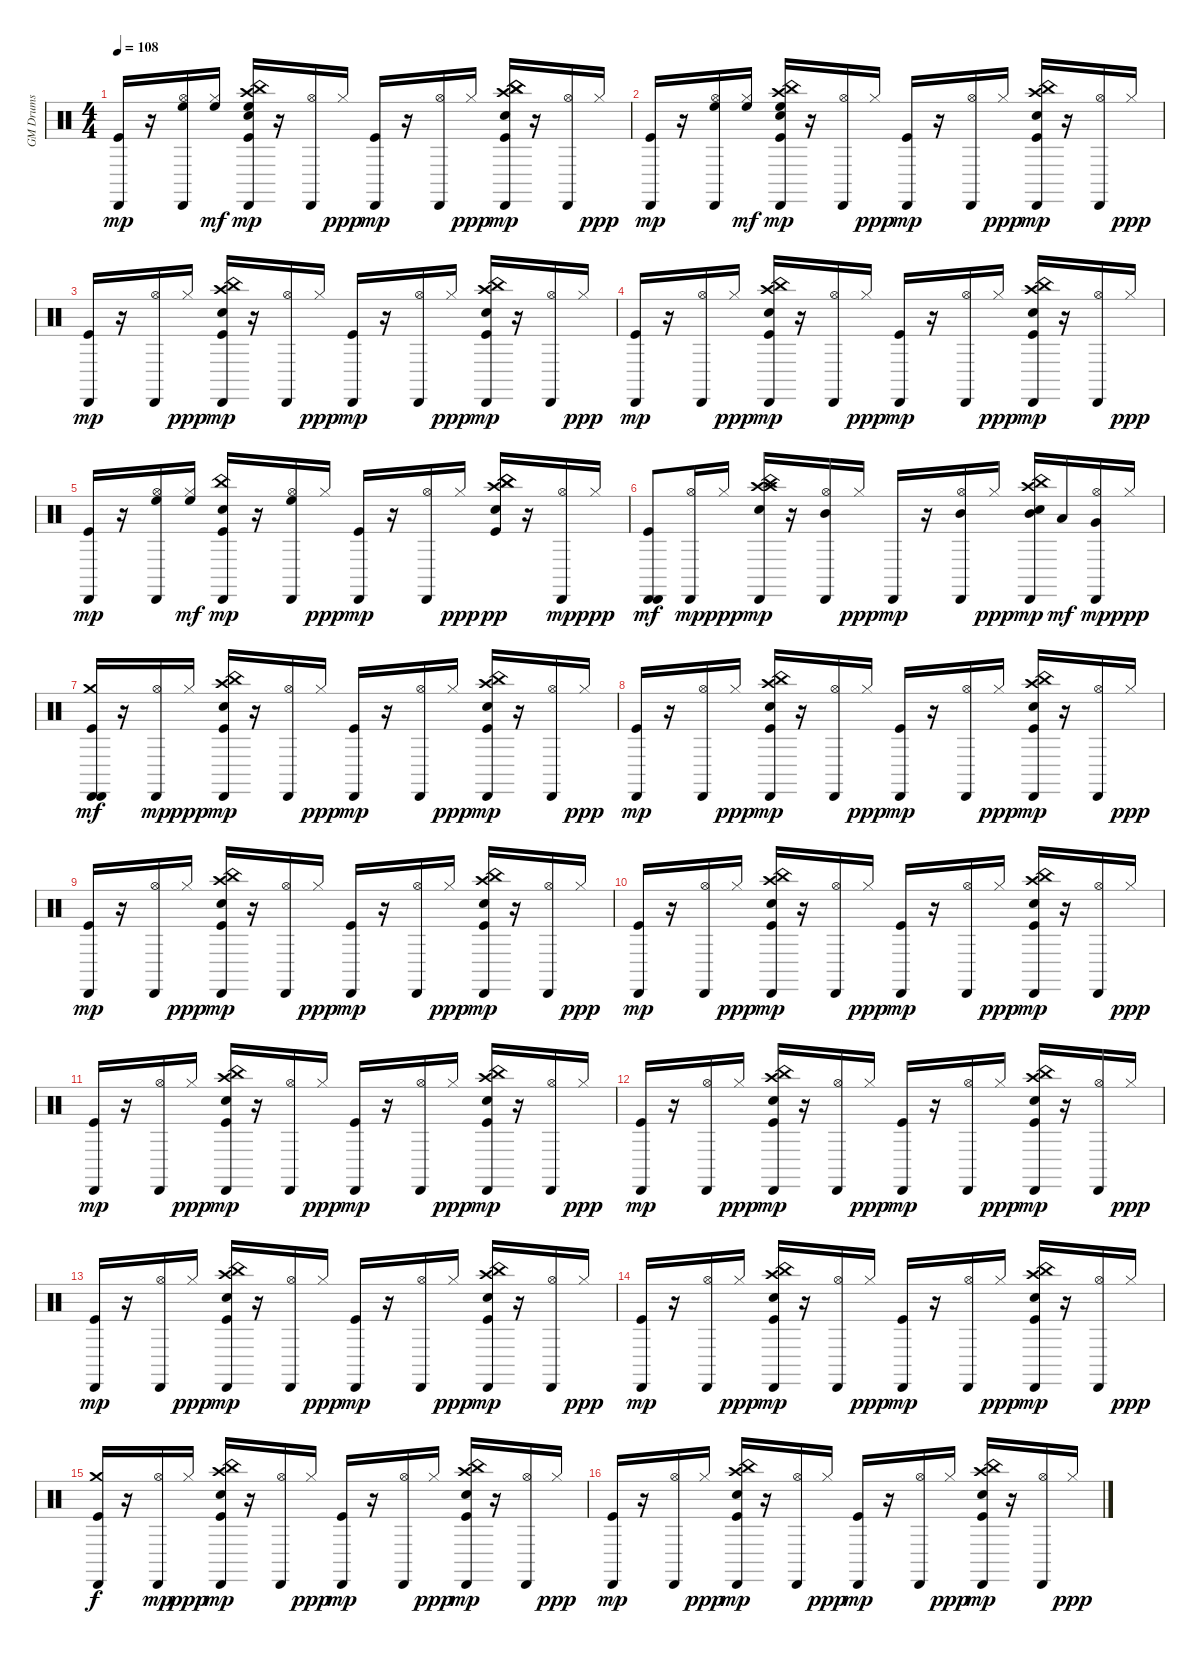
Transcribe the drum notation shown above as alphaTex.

\track ("GM Drums" "GM Drums") {instrument percussion}
\staff {score}
\articulation defaults
\ts (4 4)
\tempo 108
\clef neutral
\ks c
("Kick (hit)" "Cabasa (hit)").16{dy mp} r.16 ("Hi-Hat (open)" "High Floor Tom (hit)" "Cabasa (hit)").16 ("Hi-Hat (closed)" "High Floor Tom (hit)").16{dy mf} ("Kick (hit)" "Electric Snare (hit)" "Crash high (hit)" "High Floor Tom (hit)" "China (hit)" "Cabasa (hit)").16{dy mp} r.16 ("Hi-Hat (open)" "Cabasa (hit)").16 "Hi-Hat (closed)".16{dy ppp} ("Kick (hit)" "Cabasa (hit)").16{dy mp} r.16 ("Hi-Hat (open)" "Cabasa (hit)").16 "Hi-Hat (closed)".16{dy ppp} ("Kick (hit)" "Electric Snare (hit)" "Crash high (hit)" "China (hit)" "China (hit)" "Cabasa (hit)").16{dy mp} r.16 ("Hi-Hat (open)" "Cabasa (hit)").16 "Hi-Hat (closed)".16{dy ppp} |
("Kick (hit)" "Cabasa (hit)").16{dy mp} r.16 ("Hi-Hat (open)" "High Floor Tom (hit)" "Cabasa (hit)").16 ("Hi-Hat (closed)" "High Floor Tom (hit)").16{dy mf} ("Kick (hit)" "Electric Snare (hit)" "Crash high (hit)" "High Floor Tom (hit)" "China (hit)" "Cabasa (hit)").16{dy mp} r.16 ("Hi-Hat (open)" "Cabasa (hit)").16 "Hi-Hat (closed)".16{dy ppp} ("Kick (hit)" "Cabasa (hit)").16{dy mp} r.16 ("Hi-Hat (open)" "Cabasa (hit)").16 "Hi-Hat (closed)".16{dy ppp} ("Kick (hit)" "Electric Snare (hit)" "Crash high (hit)" "China (hit)" "Cabasa (hit)").16{dy mp} r.16 ("Hi-Hat (open)" "Cabasa (hit)").16 "Hi-Hat (closed)".16{dy ppp} |
("Kick (hit)" "Cabasa (hit)").16{dy mp} r.16 ("Hi-Hat (open)" "Cabasa (hit)").16 "Hi-Hat (closed)".16{dy ppp} ("Kick (hit)" "Electric Snare (hit)" "Crash high (hit)" "China (hit)" "Cabasa (hit)").16{dy mp} r.16 ("Hi-Hat (open)" "Cabasa (hit)").16 "Hi-Hat (closed)".16{dy ppp} ("Kick (hit)" "Cabasa (hit)").16{dy mp} r.16 ("Hi-Hat (open)" "Cabasa (hit)").16 "Hi-Hat (closed)".16{dy ppp} ("Kick (hit)" "Electric Snare (hit)" "Crash high (hit)" "China (hit)" "Cabasa (hit)").16{dy mp} r.16 ("Hi-Hat (open)" "Cabasa (hit)").16 "Hi-Hat (closed)".16{dy ppp} |
("Kick (hit)" "Cabasa (hit)").16{dy mp} r.16 ("Hi-Hat (open)" "Cabasa (hit)").16 "Hi-Hat (closed)".16{dy ppp} ("Kick (hit)" "Electric Snare (hit)" "Crash high (hit)" "China (hit)" "Cabasa (hit)").16{dy mp} r.16 ("Hi-Hat (open)" "Cabasa (hit)").16 "Hi-Hat (closed)".16{dy ppp} ("Kick (hit)" "Cabasa (hit)").16{dy mp} r.16 ("Hi-Hat (open)" "Cabasa (hit)").16 "Hi-Hat (closed)".16{dy ppp} ("Kick (hit)" "Electric Snare (hit)" "Crash high (hit)" "China (hit)" "Cabasa (hit)").16{dy mp} r.16 ("Hi-Hat (open)" "Cabasa (hit)").16 "Hi-Hat (closed)".16{dy ppp} |
("Kick (hit)" "Cabasa (hit)").16{dy mp} r.16 ("Hi-Hat (open)" "High Floor Tom (hit)" "Cabasa (hit)").16 ("Hi-Hat (closed)" "High Floor Tom (hit)").16{dy mf} ("Kick (hit)" "Electric Snare (hit)" "China (hit)" "Cabasa (hit)").16{dy mp} r.16 ("Hi-Hat (open)" "High Floor Tom (hit)" "Cabasa (hit)").16 "Hi-Hat (closed)".16{dy ppp} ("Kick (hit)" "Cabasa (hit)").16{dy mp} r.16 ("Hi-Hat (open)" "Cabasa (hit)").16 "Hi-Hat (closed)".16{dy ppp} ("Kick (hit)" "Electric Snare (hit)" "Crash high (hit)" "China (hit)" "China (hit)").16{dy pp} r.16 ("Hi-Hat (open)" "Cabasa (hit)").16{dy mp} "Hi-Hat (closed)".16{dy ppp} |
("Kick (hit)" "Cabasa (hit)" "Cabasa (hit)").8{dy mf} ("Hi-Hat (open)" "Cabasa (hit)").16{dy mp} "Hi-Hat (closed)".16{dy ppp} ("Electric Snare (hit)" "Crash high (hit)" "Crash high (hit)" "China (hit)" "Cabasa (hit)").16{dy mp} r.16 ("Hi-Hat (open)" "Mid Tom (hit)" "Cabasa (hit)").16 "Hi-Hat (closed)".16{dy ppp} "Cabasa (hit)".16{dy mp} r.16 ("Hi-Hat (open)" "Mid Tom (hit)" "Cabasa (hit)").16 "Hi-Hat (closed)".16{dy ppp} ("Electric Snare (hit)" "Mid Tom (hit)" "Crash high (hit)" "China (hit)" "Cabasa (hit)").16{dy mp} "Low Tom (hit)".16{dy mf} ("Very Low Tom (hit)" "Hi-Hat (open)" "Cabasa (hit)").16{dy mp} "Hi-Hat (closed)".16{dy ppp} |
("Kick (hit)" "Crash medium (hit)" "Cabasa (hit)" "Cabasa (hit)").16{dy mf} r.16 ("Hi-Hat (open)" "Cabasa (hit)").16{dy mp} "Hi-Hat (closed)".16{dy ppp} ("Kick (hit)" "Electric Snare (hit)" "Crash high (hit)" "China (hit)" "Cabasa (hit)").16{dy mp} r.16 ("Hi-Hat (open)" "Cabasa (hit)").16 "Hi-Hat (closed)".16{dy ppp} ("Kick (hit)" "Cabasa (hit)").16{dy mp} r.16 ("Hi-Hat (open)" "Cabasa (hit)").16 "Hi-Hat (closed)".16{dy ppp} ("Kick (hit)" "Electric Snare (hit)" "Crash high (hit)" "China (hit)" "Cabasa (hit)").16{dy mp} r.16 ("Hi-Hat (open)" "Cabasa (hit)").16 "Hi-Hat (closed)".16{dy ppp} |
("Kick (hit)" "Cabasa (hit)").16{dy mp} r.16 ("Hi-Hat (open)" "Cabasa (hit)").16 "Hi-Hat (closed)".16{dy ppp} ("Kick (hit)" "Electric Snare (hit)" "Crash high (hit)" "China (hit)" "Cabasa (hit)").16{dy mp} r.16 ("Hi-Hat (open)" "Cabasa (hit)").16 "Hi-Hat (closed)".16{dy ppp} ("Kick (hit)" "Cabasa (hit)").16{dy mp} r.16 ("Hi-Hat (open)" "Cabasa (hit)").16 "Hi-Hat (closed)".16{dy ppp} ("Kick (hit)" "Electric Snare (hit)" "Crash high (hit)" "China (hit)" "Cabasa (hit)").16{dy mp} r.16 ("Hi-Hat (open)" "Cabasa (hit)").16 "Hi-Hat (closed)".16{dy ppp} |
("Kick (hit)" "Cabasa (hit)").16{dy mp} r.16 ("Hi-Hat (open)" "Cabasa (hit)").16 "Hi-Hat (closed)".16{dy ppp} ("Kick (hit)" "Electric Snare (hit)" "Crash high (hit)" "China (hit)" "Cabasa (hit)").16{dy mp} r.16 ("Hi-Hat (open)" "Cabasa (hit)").16 "Hi-Hat (closed)".16{dy ppp} ("Kick (hit)" "Cabasa (hit)").16{dy mp} r.16 ("Hi-Hat (open)" "Cabasa (hit)").16 "Hi-Hat (closed)".16{dy ppp} ("Kick (hit)" "Electric Snare (hit)" "Crash high (hit)" "China (hit)" "Cabasa (hit)").16{dy mp} r.16 ("Hi-Hat (open)" "Cabasa (hit)").16 "Hi-Hat (closed)".16{dy ppp} |
("Kick (hit)" "Cabasa (hit)").16{dy mp} r.16 ("Hi-Hat (open)" "Cabasa (hit)").16 "Hi-Hat (closed)".16{dy ppp} ("Kick (hit)" "Electric Snare (hit)" "Crash high (hit)" "China (hit)" "Cabasa (hit)").16{dy mp} r.16 ("Hi-Hat (open)" "Cabasa (hit)").16 "Hi-Hat (closed)".16{dy ppp} ("Kick (hit)" "Cabasa (hit)").16{dy mp} r.16 ("Hi-Hat (open)" "Cabasa (hit)").16 "Hi-Hat (closed)".16{dy ppp} ("Kick (hit)" "Electric Snare (hit)" "Crash high (hit)" "China (hit)" "Cabasa (hit)").16{dy mp} r.16 ("Hi-Hat (open)" "Cabasa (hit)").16 "Hi-Hat (closed)".16{dy ppp} |
("Kick (hit)" "Cabasa (hit)").16{dy mp} r.16 ("Hi-Hat (open)" "Cabasa (hit)").16 "Hi-Hat (closed)".16{dy ppp} ("Kick (hit)" "Electric Snare (hit)" "Crash high (hit)" "China (hit)" "Cabasa (hit)").16{dy mp} r.16 ("Hi-Hat (open)" "Cabasa (hit)").16 "Hi-Hat (closed)".16{dy ppp} ("Kick (hit)" "Cabasa (hit)").16{dy mp} r.16 ("Hi-Hat (open)" "Cabasa (hit)").16 "Hi-Hat (closed)".16{dy ppp} ("Kick (hit)" "Electric Snare (hit)" "Crash high (hit)" "China (hit)" "Cabasa (hit)").16{dy mp} r.16 ("Hi-Hat (open)" "Cabasa (hit)").16 "Hi-Hat (closed)".16{dy ppp} |
("Kick (hit)" "Cabasa (hit)").16{dy mp} r.16 ("Hi-Hat (open)" "Cabasa (hit)").16 "Hi-Hat (closed)".16{dy ppp} ("Kick (hit)" "Electric Snare (hit)" "Crash high (hit)" "China (hit)" "Cabasa (hit)").16{dy mp} r.16 ("Hi-Hat (open)" "Cabasa (hit)").16 "Hi-Hat (closed)".16{dy ppp} ("Kick (hit)" "Cabasa (hit)").16{dy mp} r.16 ("Hi-Hat (open)" "Cabasa (hit)").16 "Hi-Hat (closed)".16{dy ppp} ("Kick (hit)" "Electric Snare (hit)" "Crash high (hit)" "China (hit)" "Cabasa (hit)").16{dy mp} r.16 ("Hi-Hat (open)" "Cabasa (hit)").16 "Hi-Hat (closed)".16{dy ppp} |
("Kick (hit)" "Cabasa (hit)").16{dy mp} r.16 ("Hi-Hat (open)" "Cabasa (hit)").16 "Hi-Hat (closed)".16{dy ppp} ("Kick (hit)" "Electric Snare (hit)" "Crash high (hit)" "China (hit)" "Cabasa (hit)").16{dy mp} r.16 ("Hi-Hat (open)" "Cabasa (hit)").16 "Hi-Hat (closed)".16{dy ppp} ("Kick (hit)" "Cabasa (hit)").16{dy mp} r.16 ("Hi-Hat (open)" "Cabasa (hit)").16 "Hi-Hat (closed)".16{dy ppp} ("Kick (hit)" "Electric Snare (hit)" "Crash high (hit)" "China (hit)" "Cabasa (hit)").16{dy mp} r.16 ("Hi-Hat (open)" "Cabasa (hit)").16 "Hi-Hat (closed)".16{dy ppp} |
("Kick (hit)" "Cabasa (hit)").16{dy mp} r.16 ("Hi-Hat (open)" "Cabasa (hit)").16 "Hi-Hat (closed)".16{dy ppp} ("Kick (hit)" "Electric Snare (hit)" "Crash high (hit)" "China (hit)" "Cabasa (hit)").16{dy mp} r.16 ("Hi-Hat (open)" "Cabasa (hit)").16 "Hi-Hat (closed)".16{dy ppp} ("Kick (hit)" "Cabasa (hit)").16{dy mp} r.16 ("Hi-Hat (open)" "Cabasa (hit)").16 "Hi-Hat (closed)".16{dy ppp} ("Kick (hit)" "Electric Snare (hit)" "Crash high (hit)" "China (hit)" "Cabasa (hit)").16{dy mp} r.16 ("Hi-Hat (open)" "Cabasa (hit)").16 "Hi-Hat (closed)".16{dy ppp} |
("Kick (hit)" "Crash medium (hit)" "Cabasa (hit)").16{dy f} r.16 ("Hi-Hat (open)" "Cabasa (hit)").16{dy mp} "Hi-Hat (closed)".16{dy ppp} ("Kick (hit)" "Electric Snare (hit)" "Crash high (hit)" "China (hit)" "Cabasa (hit)").16{dy mp} r.16 ("Hi-Hat (open)" "Cabasa (hit)").16 "Hi-Hat (closed)".16{dy ppp} ("Kick (hit)" "Cabasa (hit)").16{dy mp} r.16 ("Hi-Hat (open)" "Cabasa (hit)").16 "Hi-Hat (closed)".16{dy ppp} ("Kick (hit)" "Electric Snare (hit)" "Crash high (hit)" "China (hit)" "Cabasa (hit)").16{dy mp} r.16 ("Hi-Hat (open)" "Cabasa (hit)").16 "Hi-Hat (closed)".16{dy ppp} |
("Kick (hit)" "Cabasa (hit)").16{dy mp} r.16 ("Hi-Hat (open)" "Cabasa (hit)").16 "Hi-Hat (closed)".16{dy ppp} ("Kick (hit)" "Electric Snare (hit)" "Crash high (hit)" "China (hit)" "Cabasa (hit)").16{dy mp} r.16 ("Hi-Hat (open)" "Cabasa (hit)").16 "Hi-Hat (closed)".16{dy ppp} ("Kick (hit)" "Cabasa (hit)").16{dy mp} r.16 ("Hi-Hat (open)" "Cabasa (hit)").16 "Hi-Hat (closed)".16{dy ppp} ("Kick (hit)" "Electric Snare (hit)" "Crash high (hit)" "China (hit)" "Cabasa (hit)").16{dy mp} r.16 ("Hi-Hat (open)" "Cabasa (hit)").16 "Hi-Hat (closed)".16{dy ppp}
